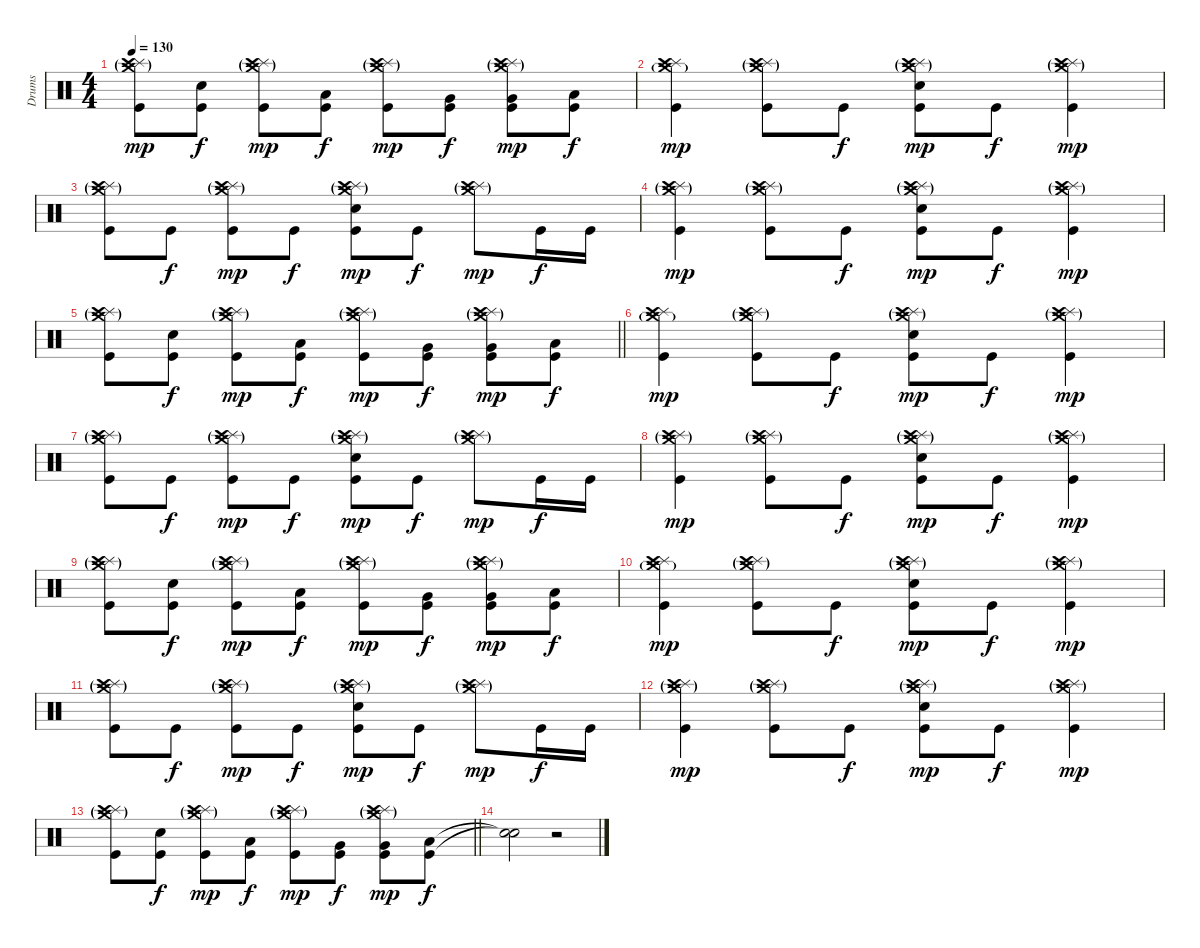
\track ("Drums" "Drums") {instrument percussion}
\staff {score}
\articulation defaults
\ts (4 4)
\tempo 130
\clef neutral
\ks c
("Splash (hit)" "Crash medium (hit)"{g} "Crash high (hit)"{g} "Kick (hit)").8{dy mp} ("Electric Snare (hit)" "Kick (hit)").8{dy f} ("Splash (hit)" "Crash medium (hit)"{g} "Crash high (hit)"{g} "Kick (hit)").8{dy mp} ("Low Floor Tom (hit)" "Kick (hit)").8{dy f} ("Splash (hit)" "Crash medium (hit)"{g} "Crash high (hit)"{g} "Kick (hit)").8{dy mp} ("Very Low Tom (hit)" "Kick (hit)").8{dy f} ("Splash (hit)" "Crash medium (hit)"{g} "Crash high (hit)"{g} "Very Low Tom (hit)" "Kick (hit)").8{dy mp} ("Low Floor Tom (hit)" "Kick (hit)").8{dy f} |
("Splash (hit)" "Crash medium (hit)"{g} "Crash high (hit)" "Kick (hit)").4{dy mp} ("Splash (hit)" "Crash medium (hit)"{g} "Crash high (hit)"{g} "Kick (hit)").8 "Kick (hit)".8{dy f} ("Splash (hit)" "Crash medium (hit)"{g} "Crash high (hit)"{g} "Electric Snare (hit)" "Kick (hit)").8{dy mp} "Kick (hit)".8{dy f} ("Splash (hit)" "Crash medium (hit)"{g} "Crash high (hit)"{g} "Kick (hit)").4{dy mp} |
("Splash (hit)" "Crash medium (hit)"{g} "Crash high (hit)"{g} "Kick (hit)").8 "Kick (hit)".8{dy f} ("Splash (hit)" "Crash medium (hit)"{g} "Crash high (hit)"{g} "Kick (hit)").8{dy mp} "Kick (hit)".8{dy f} ("Splash (hit)" "Crash medium (hit)"{g} "Crash high (hit)"{g} "Electric Snare (hit)" "Kick (hit)").8{dy mp} "Kick (hit)".8{dy f} ("Splash (hit)" "Crash medium (hit)"{g} "Crash high (hit)"{g}).8{dy mp} "Kick (hit)".16{dy f} "Kick (hit)".16 |
("Splash (hit)" "Crash medium (hit)"{g} "Crash high (hit)"{g} "Kick (hit)").4{dy mp} ("Splash (hit)" "Crash medium (hit)"{g} "Crash high (hit)"{g} "Kick (hit)").8 "Kick (hit)".8{dy f} ("Splash (hit)" "Crash medium (hit)"{g} "Crash high (hit)"{g} "Electric Snare (hit)" "Kick (hit)").8{dy mp} "Kick (hit)".8{dy f} ("Splash (hit)" "Crash medium (hit)"{g} "Crash high (hit)"{g} "Kick (hit)").4{dy mp} |
\barLineRight lightlight
("Splash (hit)" "Crash medium (hit)"{g} "Crash high (hit)"{g} "Kick (hit)").8 ("Electric Snare (hit)" "Kick (hit)").8{dy f} ("Splash (hit)" "Crash medium (hit)"{g} "Crash high (hit)"{g} "Kick (hit)").8{dy mp} ("Low Floor Tom (hit)" "Kick (hit)").8{dy f} ("Splash (hit)" "Crash medium (hit)"{g} "Crash high (hit)"{g} "Kick (hit)").8{dy mp} ("Very Low Tom (hit)" "Kick (hit)").8{dy f} ("Splash (hit)" "Crash medium (hit)"{g} "Crash high (hit)"{g} "Very Low Tom (hit)" "Kick (hit)").8{dy mp} ("Low Floor Tom (hit)" "Kick (hit)").8{dy f} |
("Splash (hit)" "Crash medium (hit)"{g} "Crash high (hit)" "Kick (hit)").4{dy mp} ("Splash (hit)" "Crash medium (hit)"{g} "Crash high (hit)"{g} "Kick (hit)").8 "Kick (hit)".8{dy f} ("Splash (hit)" "Crash medium (hit)"{g} "Crash high (hit)"{g} "Electric Snare (hit)" "Kick (hit)").8{dy mp} "Kick (hit)".8{dy f} ("Splash (hit)" "Crash medium (hit)"{g} "Crash high (hit)"{g} "Kick (hit)").4{dy mp} |
("Splash (hit)" "Crash medium (hit)"{g} "Crash high (hit)"{g} "Kick (hit)").8 "Kick (hit)".8{dy f} ("Splash (hit)" "Crash medium (hit)"{g} "Crash high (hit)"{g} "Kick (hit)").8{dy mp} "Kick (hit)".8{dy f} ("Splash (hit)" "Crash medium (hit)"{g} "Crash high (hit)"{g} "Electric Snare (hit)" "Kick (hit)").8{dy mp} "Kick (hit)".8{dy f} ("Splash (hit)" "Crash medium (hit)"{g} "Crash high (hit)"{g}).8{dy mp} "Kick (hit)".16{dy f} "Kick (hit)".16 |
("Splash (hit)" "Crash medium (hit)"{g} "Crash high (hit)"{g} "Kick (hit)").4{dy mp} ("Splash (hit)" "Crash medium (hit)"{g} "Crash high (hit)"{g} "Kick (hit)").8 "Kick (hit)".8{dy f} ("Splash (hit)" "Crash medium (hit)"{g} "Crash high (hit)"{g} "Electric Snare (hit)" "Kick (hit)").8{dy mp} "Kick (hit)".8{dy f} ("Splash (hit)" "Crash medium (hit)"{g} "Crash high (hit)"{g} "Kick (hit)").4{dy mp} |
("Splash (hit)" "Crash medium (hit)"{g} "Crash high (hit)"{g} "Kick (hit)").8 ("Electric Snare (hit)" "Kick (hit)").8{dy f} ("Splash (hit)" "Crash medium (hit)"{g} "Crash high (hit)"{g} "Kick (hit)").8{dy mp} ("Low Floor Tom (hit)" "Kick (hit)").8{dy f} ("Splash (hit)" "Crash medium (hit)"{g} "Crash high (hit)"{g} "Kick (hit)").8{dy mp} ("Very Low Tom (hit)" "Kick (hit)").8{dy f} ("Splash (hit)" "Crash medium (hit)"{g} "Crash high (hit)"{g} "Very Low Tom (hit)" "Kick (hit)").8{dy mp} ("Low Floor Tom (hit)" "Kick (hit)").8{dy f} |
("Splash (hit)" "Crash medium (hit)"{g} "Crash high (hit)" "Kick (hit)").4{dy mp} ("Splash (hit)" "Crash medium (hit)"{g} "Crash high (hit)"{g} "Kick (hit)").8 "Kick (hit)".8{dy f} ("Splash (hit)" "Crash medium (hit)"{g} "Crash high (hit)"{g} "Electric Snare (hit)" "Kick (hit)").8{dy mp} "Kick (hit)".8{dy f} ("Splash (hit)" "Crash medium (hit)"{g} "Crash high (hit)"{g} "Kick (hit)").4{dy mp} |
("Splash (hit)" "Crash medium (hit)"{g} "Crash high (hit)"{g} "Kick (hit)").8 "Kick (hit)".8{dy f} ("Splash (hit)" "Crash medium (hit)"{g} "Crash high (hit)"{g} "Kick (hit)").8{dy mp} "Kick (hit)".8{dy f} ("Splash (hit)" "Crash medium (hit)"{g} "Crash high (hit)"{g} "Electric Snare (hit)" "Kick (hit)").8{dy mp} "Kick (hit)".8{dy f} ("Splash (hit)" "Crash medium (hit)"{g} "Crash high (hit)"{g}).8{dy mp} "Kick (hit)".16{dy f} "Kick (hit)".16 |
("Splash (hit)" "Crash medium (hit)"{g} "Crash high (hit)"{g} "Kick (hit)").4{dy mp} ("Splash (hit)" "Crash medium (hit)"{g} "Crash high (hit)"{g} "Kick (hit)").8 "Kick (hit)".8{dy f} ("Splash (hit)" "Crash medium (hit)"{g} "Crash high (hit)"{g} "Electric Snare (hit)" "Kick (hit)").8{dy mp} "Kick (hit)".8{dy f} ("Splash (hit)" "Crash medium (hit)"{g} "Crash high (hit)"{g} "Kick (hit)").4{dy mp} |
\barLineRight lightlight
("Splash (hit)" "Crash medium (hit)"{g} "Crash high (hit)"{g} "Kick (hit)").8 ("Electric Snare (hit)" "Kick (hit)").8{dy f} ("Splash (hit)" "Crash medium (hit)"{g} "Crash high (hit)"{g} "Kick (hit)").8{dy mp} ("Low Floor Tom (hit)" "Kick (hit)").8{dy f} ("Splash (hit)" "Crash medium (hit)"{g} "Crash high (hit)"{g} "Kick (hit)").8{dy mp} ("Very Low Tom (hit)" "Kick (hit)").8{dy f} ("Splash (hit)" "Crash medium (hit)"{g} "Crash high (hit)"{g} "Very Low Tom (hit)" "Kick (hit)").8{dy mp} ("Low Floor Tom (hit)" "Kick (hit)").8{dy f} |
("Snare (hit)"{t} "Snare (hit)"{t}).2 r.2
